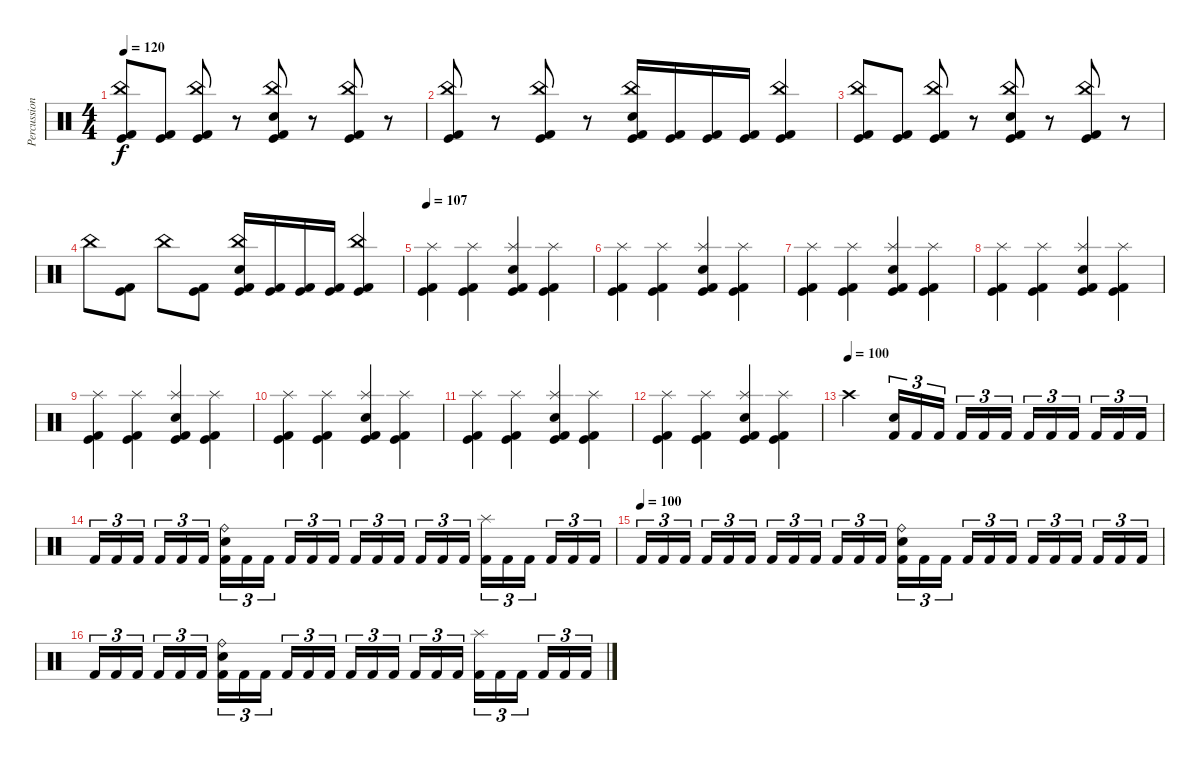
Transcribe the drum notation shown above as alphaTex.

\track ("Percussion" "Percussion") {instrument percussion}
\staff {score}
\articulation defaults
\ts (4 4)
\tempo 120
\clef neutral
\ks c
("Kick (hit)" "China (hit)" "Kick (hit) 2").8{dy f} ("Kick (hit)" "Kick (hit) 2").8 ("Kick (hit)" "China (hit)" "Kick (hit) 2").8 r.8 ("Kick (hit)" "Electric Snare (hit)" "China (hit)" "Kick (hit) 2").8 r.8 ("Kick (hit)" "China (hit)" "Kick (hit) 2").8 r.8 |
("Kick (hit)" "China (hit)" "Kick (hit) 2").8 r.8 ("Kick (hit)" "China (hit)" "Kick (hit) 2").8 r.8 ("Kick (hit)" "Electric Snare (hit)" "China (hit)" "Kick (hit) 2").16 ("Kick (hit)" "Kick (hit) 2").16 ("Kick (hit)" "Kick (hit) 2").16 ("Kick (hit)" "Kick (hit) 2").16 ("Kick (hit)" "China (hit)" "Kick (hit) 2").4 |
("Kick (hit)" "China (hit)" "Kick (hit) 2").8 ("Kick (hit)" "Kick (hit) 2").8 ("Kick (hit)" "China (hit)" "Kick (hit) 2").8 r.8 ("Kick (hit)" "Electric Snare (hit)" "China (hit)" "Kick (hit) 2").8 r.8 ("Kick (hit)" "China (hit)" "Kick (hit) 2").8 r.8 |
"China (hit)".8 ("Kick (hit)" "Kick (hit) 2").8 "China (hit)".8 ("Kick (hit)" "Kick (hit) 2").8 ("Kick (hit)" "Electric Snare (hit)" "China (hit)" "Kick (hit) 2").16 ("Kick (hit)" "Kick (hit) 2").16 ("Kick (hit)" "Kick (hit) 2").16 ("Kick (hit)" "Kick (hit) 2").16 ("Kick (hit)" "China (hit)" "Kick (hit) 2").4 |
\tempo 107
("Kick (hit)" "Splash (hit)" "Kick (hit) 2").4 ("Kick (hit)" "Splash (hit)" "Kick (hit) 2").4 ("Kick (hit)" "Snare (hit) 2" "Splash (hit)" "Kick (hit) 2").4 ("Kick (hit)" "Splash (hit)" "Kick (hit) 2").4 |
("Kick (hit)" "Splash (hit)" "Kick (hit) 2").4 ("Kick (hit)" "Splash (hit)" "Kick (hit) 2").4 ("Kick (hit)" "Snare (hit) 2" "Splash (hit)" "Kick (hit) 2").4 ("Kick (hit)" "Splash (hit)" "Kick (hit) 2").4 |
("Kick (hit)" "Splash (hit)" "Kick (hit) 2").4 ("Kick (hit)" "Splash (hit)" "Kick (hit) 2").4 ("Kick (hit)" "Snare (hit) 2" "Splash (hit)" "Kick (hit) 2").4 ("Kick (hit)" "Splash (hit)" "Kick (hit) 2").4 |
("Kick (hit)" "Splash (hit)" "Kick (hit) 2").4 ("Kick (hit)" "Splash (hit)" "Kick (hit) 2").4 ("Kick (hit)" "Snare (hit) 2" "Splash (hit)" "Kick (hit) 2").4 ("Kick (hit)" "Splash (hit)" "Kick (hit) 2").4 |
("Kick (hit)" "Splash (hit)" "Kick (hit) 2").4 ("Kick (hit)" "Splash (hit)" "Kick (hit) 2").4 ("Kick (hit)" "Snare (hit) 2" "Splash (hit)" "Kick (hit) 2").4 ("Kick (hit)" "Splash (hit)" "Kick (hit) 2").4 |
("Kick (hit)" "Splash (hit)" "Kick (hit) 2").4 ("Kick (hit)" "Splash (hit)" "Kick (hit) 2").4 ("Kick (hit)" "Snare (hit) 2" "Splash (hit)" "Kick (hit) 2").4 ("Kick (hit)" "Splash (hit)" "Kick (hit) 2").4 |
("Kick (hit)" "Splash (hit)" "Kick (hit) 2").4 ("Kick (hit)" "Splash (hit)" "Kick (hit) 2").4 ("Kick (hit)" "Snare (hit) 2" "Splash (hit)" "Kick (hit) 2").4 ("Kick (hit)" "Splash (hit)" "Kick (hit) 2").4 |
("Kick (hit)" "Splash (hit)" "Kick (hit) 2").4 ("Kick (hit)" "Splash (hit)" "Kick (hit) 2").4 ("Kick (hit)" "Snare (hit) 2" "Splash (hit)" "Kick (hit) 2").4 ("Kick (hit)" "Splash (hit)" "Kick (hit) 2").4 |
\tempo (100)
"Crash high (hit)".2 ("Snare (hit) 2" "Kick (hit) 2").16{tu (3 2)} "Kick (hit) 2".16{tu (3 2)} "Kick (hit) 2".16{tu (3 2) beam splitsecondary} "Kick (hit) 2".16{tu (3 2)} "Kick (hit) 2".16{tu (3 2)} "Kick (hit) 2".16{tu (3 2)} "Kick (hit) 2".16{tu (3 2)} "Kick (hit) 2".16{tu (3 2)} "Kick (hit) 2".16{tu (3 2) beam splitsecondary} "Kick (hit) 2".16{tu (3 2)} "Kick (hit) 2".16{tu (3 2)} "Kick (hit) 2".16{tu (3 2)} |
"Kick (hit) 2".16{tu (3 2)} "Kick (hit) 2".16{tu (3 2)} "Kick (hit) 2".16{tu (3 2) beam splitsecondary} "Kick (hit) 2".16{tu (3 2)} "Kick (hit) 2".16{tu (3 2)} "Kick (hit) 2".16{tu (3 2)} ("Ride (bell)" "Snare (hit) 2" "Kick (hit) 2").16{tu (3 2)} "Kick (hit) 2".16{tu (3 2)} "Kick (hit) 2".16{tu (3 2) beam splitsecondary} "Kick (hit) 2".16{tu (3 2)} "Kick (hit) 2".16{tu (3 2)} "Kick (hit) 2".16{tu (3 2)} "Kick (hit) 2".16{tu (3 2)} "Kick (hit) 2".16{tu (3 2)} "Kick (hit) 2".16{tu (3 2) beam splitsecondary} "Kick (hit) 2".16{tu (3 2)} "Kick (hit) 2".16{tu (3 2)} "Kick (hit) 2".16{tu (3 2)} ("Splash (hit)" "Kick (hit) 2").16{tu (3 2)} "Kick (hit) 2".16{tu (3 2)} "Kick (hit) 2".16{tu (3 2) beam splitsecondary} "Kick (hit) 2".16{tu (3 2)} "Kick (hit) 2".16{tu (3 2)} "Kick (hit) 2".16{tu (3 2)} |
\tempo (100)
"Kick (hit) 2".16{tu (3 2)} "Kick (hit) 2".16{tu (3 2)} "Kick (hit) 2".16{tu (3 2) beam splitsecondary} "Kick (hit) 2".16{tu (3 2)} "Kick (hit) 2".16{tu (3 2)} "Kick (hit) 2".16{tu (3 2)} "Kick (hit) 2".16{tu (3 2)} "Kick (hit) 2".16{tu (3 2)} "Kick (hit) 2".16{tu (3 2) beam splitsecondary} "Kick (hit) 2".16{tu (3 2)} "Kick (hit) 2".16{tu (3 2)} "Kick (hit) 2".16{tu (3 2)} ("Ride (bell)" "Snare (hit) 2" "Kick (hit) 2").16{tu (3 2)} "Kick (hit) 2".16{tu (3 2)} "Kick (hit) 2".16{tu (3 2) beam splitsecondary} "Kick (hit) 2".16{tu (3 2)} "Kick (hit) 2".16{tu (3 2)} "Kick (hit) 2".16{tu (3 2)} "Kick (hit) 2".16{tu (3 2)} "Kick (hit) 2".16{tu (3 2)} "Kick (hit) 2".16{tu (3 2) beam splitsecondary} "Kick (hit) 2".16{tu (3 2)} "Kick (hit) 2".16{tu (3 2)} "Kick (hit) 2".16{tu (3 2)} |
"Kick (hit) 2".16{tu (3 2)} "Kick (hit) 2".16{tu (3 2)} "Kick (hit) 2".16{tu (3 2) beam splitsecondary} "Kick (hit) 2".16{tu (3 2)} "Kick (hit) 2".16{tu (3 2)} "Kick (hit) 2".16{tu (3 2)} ("Ride (bell)" "Snare (hit) 2" "Kick (hit) 2").16{tu (3 2)} "Kick (hit) 2".16{tu (3 2)} "Kick (hit) 2".16{tu (3 2) beam splitsecondary} "Kick (hit) 2".16{tu (3 2)} "Kick (hit) 2".16{tu (3 2)} "Kick (hit) 2".16{tu (3 2)} "Kick (hit) 2".16{tu (3 2)} "Kick (hit) 2".16{tu (3 2)} "Kick (hit) 2".16{tu (3 2) beam splitsecondary} "Kick (hit) 2".16{tu (3 2)} "Kick (hit) 2".16{tu (3 2)} "Kick (hit) 2".16{tu (3 2)} ("Splash (hit)" "Kick (hit) 2").16{tu (3 2)} "Kick (hit) 2".16{tu (3 2)} "Kick (hit) 2".16{tu (3 2) beam splitsecondary} "Kick (hit) 2".16{tu (3 2)} "Kick (hit) 2".16{tu (3 2)} "Kick (hit) 2".16{tu (3 2)}
